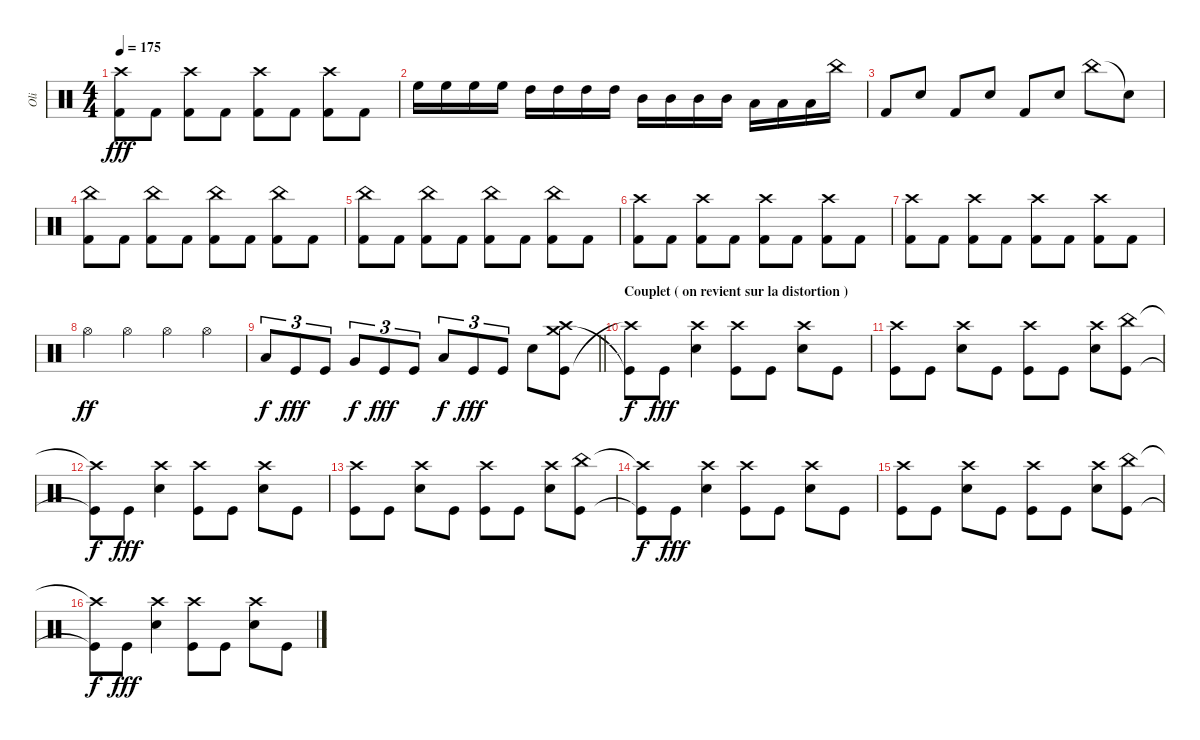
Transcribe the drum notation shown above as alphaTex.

\track ("Oli" "Oli") {instrument percussion}
\staff {score}
\articulation defaults
\ts (4 4)
\tempo 175
\clef neutral
\ks c
("Crash high (hit)" "Kick (hit) 2").8{dy fff} "Kick (hit) 2".8 ("Crash high (hit)" "Kick (hit) 2").8 "Kick (hit) 2".8 ("Crash high (hit)" "Kick (hit) 2").8 "Kick (hit) 2".8 ("Crash high (hit)" "Kick (hit) 2").8 "Kick (hit) 2".8 |
"High Floor Tom (hit)".16 "High Floor Tom (hit)".16 "High Floor Tom (hit)".16 "High Floor Tom (hit)".16 "High Tom (hit)".16 "High Tom (hit)".16 "High Tom (hit)".16 "High Tom (hit)".16 "Mid Tom (hit)".16 "Mid Tom (hit)".16 "Mid Tom (hit)".16 "Mid Tom (hit)".16 "Low Tom (hit)".16 "Low Tom (hit)".16 "Low Tom (hit)".16 "China (hit)".16 |
"Kick (hit) 2".8 "Snare (hit) 2".8 "Kick (hit) 2".8 "Snare (hit) 2".8 "Kick (hit) 2".8 "Snare (hit) 2".8 "China (hit)".8 "Snare (hit)"{t}.8 |
("China (hit)" "Kick (hit) 2").8 "Kick (hit) 2".8 ("China (hit)" "Kick (hit) 2").8 "Kick (hit) 2".8 ("China (hit)" "Kick (hit) 2").8 "Kick (hit) 2".8 ("China (hit)" "Kick (hit) 2").8 "Kick (hit) 2".8 |
("China (hit)" "Kick (hit) 2").8 "Kick (hit) 2".8 ("China (hit)" "Kick (hit) 2").8 "Kick (hit) 2".8 ("China (hit)" "Kick (hit) 2").8 "Kick (hit) 2".8 ("China (hit)" "Kick (hit) 2").8 "Kick (hit) 2".8 |
("Crash high (hit)" "Kick (hit) 2").8 "Kick (hit) 2".8 ("Crash high (hit)" "Kick (hit) 2").8 "Kick (hit) 2".8 ("Crash high (hit)" "Kick (hit) 2").8 "Kick (hit) 2".8 ("Crash high (hit)" "Kick (hit) 2").8 "Kick (hit) 2".8 |
("Crash high (hit)" "Kick (hit) 2").8 "Kick (hit) 2".8 ("Crash high (hit)" "Kick (hit) 2").8 "Kick (hit) 2".8 ("Crash high (hit)" "Kick (hit) 2").8 "Kick (hit) 2".8 ("Crash high (hit)" "Kick (hit) 2").8 "Kick (hit) 2".8 |
"Hi-Hat (open)".4{dy ff} "Hi-Hat (open)".4 "Hi-Hat (open)".4 "Hi-Hat (open)".4 |
\barLineRight lightlight "Low Tom (hit)".8{tu (3 2) dy f} "Kick (hit)".8{tu (3 2) dy fff} "Kick (hit)".8{tu (3 2)} "Very Low Tom (hit)".8{tu (3 2) dy f} "Kick (hit)".8{tu (3 2) dy fff} "Kick (hit)".8{tu (3 2)} "Low Floor Tom (hit)".8{tu (3 2) dy f} "Kick (hit)".8{tu (3 2) dy fff} "Kick (hit)".8{tu (3 2)} "Snare (hit) 2".8
("Kick (hit)" "Crash medium (hit)" "Crash high (hit)").8 |
\section ("" "Couplet ( on revient sur la distortion )")
("Crash high (hit)"{t} "Kick (hit)"{t}).8{dy f} "Kick (hit)".8{dy fff} ("Crash high (hit)" "Snare (hit) 2").4 ("Crash high (hit)" "Kick (hit)").8 "Kick (hit)".8 ("Crash high (hit)" "Snare (hit) 2").8 "Kick (hit)".8 |
("Crash high (hit)" "Kick (hit)").8 "Kick (hit)".8 ("Crash high (hit)" "Snare (hit) 2").8 "Kick (hit)".8 ("Crash high (hit)" "Kick (hit)").8 "Kick (hit)".8 ("Crash high (hit)" "Snare (hit) 2").8 ("China (hit)" "Kick (hit)").8 |
("Crash high (hit)"{t} "Kick (hit)"{t}).8{dy f} "Kick (hit)".8{dy fff} ("Crash high (hit)" "Snare (hit) 2").4 ("Crash high (hit)" "Kick (hit)").8 "Kick (hit)".8 ("Crash high (hit)" "Snare (hit) 2").8 "Kick (hit)".8 |
("Crash high (hit)" "Kick (hit)").8 "Kick (hit)".8 ("Crash high (hit)" "Snare (hit) 2").8 "Kick (hit)".8 ("Crash high (hit)" "Kick (hit)").8 "Kick (hit)".8 ("Crash high (hit)" "Snare (hit) 2").8 ("China (hit)" "Kick (hit)").8 |
("Crash high (hit)"{t} "Kick (hit)"{t}).8{dy f} "Kick (hit)".8{dy fff} ("Crash high (hit)" "Snare (hit) 2").4 ("Crash high (hit)" "Kick (hit)").8 "Kick (hit)".8 ("Crash high (hit)" "Snare (hit) 2").8 "Kick (hit)".8 |
("Crash high (hit)" "Kick (hit)").8 "Kick (hit)".8 ("Crash high (hit)" "Snare (hit) 2").8 "Kick (hit)".8 ("Crash high (hit)" "Kick (hit)").8 "Kick (hit)".8 ("Crash high (hit)" "Snare (hit) 2").8 ("China (hit)" "Kick (hit)").8 |
("Crash high (hit)"{t} "Kick (hit)"{t}).8{dy f} "Kick (hit)".8{dy fff} ("Crash high (hit)" "Snare (hit) 2").4 ("Crash high (hit)" "Kick (hit)").8 "Kick (hit)".8 ("Crash high (hit)" "Snare (hit) 2").8 "Kick (hit)".8
